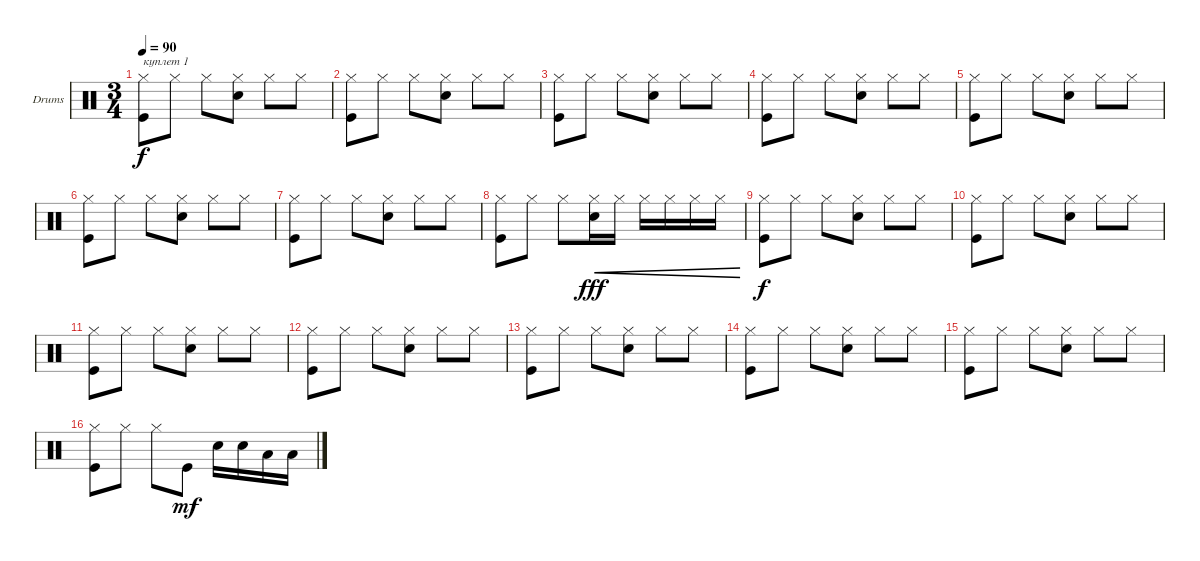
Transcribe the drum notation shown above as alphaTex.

\defaultSystemsLayout 4
\bracketExtendMode groupsimilarinstruments
\firstSystemTrackNameOrientation horizontal
\otherSystemsTrackNameOrientation horizontal
\track ("Саня" "Drums") {instrument percussion}
\staff {score}
\articulation defaults
\ts (3 4)
\tempo 90
\clef neutral
\ks c
("Kick (hit)" "Hi-Hat (closed)").8{txt "куплет 1" dy f} "Hi-Hat (closed)".8 "Hi-Hat (closed)".8 ("Snare (hit) 2" "Hi-Hat (closed)").8 "Hi-Hat (closed)".8 "Hi-Hat (closed)".8 |
("Kick (hit)" "Hi-Hat (closed)").8 "Hi-Hat (closed)".8 "Hi-Hat (closed)".8 ("Snare (hit) 2" "Hi-Hat (closed)").8 "Hi-Hat (closed)".8 "Hi-Hat (closed)".8 |
("Kick (hit)" "Hi-Hat (closed)").8 "Hi-Hat (closed)".8 "Hi-Hat (closed)".8 ("Snare (hit) 2" "Hi-Hat (closed)").8 "Hi-Hat (closed)".8 "Hi-Hat (closed)".8 |
("Kick (hit)" "Hi-Hat (closed)").8 "Hi-Hat (closed)".8 "Hi-Hat (closed)".8 ("Snare (hit) 2" "Hi-Hat (closed)").8 "Hi-Hat (closed)".8 "Hi-Hat (closed)".8 |
("Kick (hit)" "Hi-Hat (closed)").8 "Hi-Hat (closed)".8 "Hi-Hat (closed)".8 ("Snare (hit) 2" "Hi-Hat (closed)").8 "Hi-Hat (closed)".8 "Hi-Hat (closed)".8 |
("Kick (hit)" "Hi-Hat (closed)").8 "Hi-Hat (closed)".8 "Hi-Hat (closed)".8 ("Snare (hit) 2" "Hi-Hat (closed)").8 "Hi-Hat (closed)".8 "Hi-Hat (closed)".8 |
("Kick (hit)" "Hi-Hat (closed)").8 "Hi-Hat (closed)".8 "Hi-Hat (closed)".8 ("Snare (hit) 2" "Hi-Hat (closed)").8 "Hi-Hat (closed)".8 "Hi-Hat (closed)".8 |
("Kick (hit)" "Hi-Hat (closed)").8 "Hi-Hat (closed)".8 "Hi-Hat (closed)".8 ("Hi-Hat (closed)" "Snare (hit) 2").16{cre dy fff} "Hi-Hat (closed)".16{cre} "Hi-Hat (closed)".16{cre} "Hi-Hat (closed)".16{cre} "Hi-Hat (closed)".16{cre} "Hi-Hat (closed)".16{cre} |
("Kick (hit)" "Hi-Hat (closed)").8{dy f} "Hi-Hat (closed)".8 "Hi-Hat (closed)".8 ("Snare (hit) 2" "Hi-Hat (closed)").8 "Hi-Hat (closed)".8 "Hi-Hat (closed)".8 |
("Kick (hit)" "Hi-Hat (closed)").8 "Hi-Hat (closed)".8 "Hi-Hat (closed)".8 ("Snare (hit) 2" "Hi-Hat (closed)").8 "Hi-Hat (closed)".8 "Hi-Hat (closed)".8 |
("Kick (hit)" "Hi-Hat (closed)").8 "Hi-Hat (closed)".8 "Hi-Hat (closed)".8 ("Snare (hit) 2" "Hi-Hat (closed)").8 "Hi-Hat (closed)".8 "Hi-Hat (closed)".8 |
("Kick (hit)" "Hi-Hat (closed)").8 "Hi-Hat (closed)".8 "Hi-Hat (closed)".8 ("Snare (hit) 2" "Hi-Hat (closed)").8 "Hi-Hat (closed)".8 "Hi-Hat (closed)".8 |
("Kick (hit)" "Hi-Hat (closed)").8 "Hi-Hat (closed)".8 "Hi-Hat (closed)".8 ("Snare (hit) 2" "Hi-Hat (closed)").8 "Hi-Hat (closed)".8 "Hi-Hat (closed)".8 |
("Kick (hit)" "Hi-Hat (closed)").8 "Hi-Hat (closed)".8 "Hi-Hat (closed)".8 ("Snare (hit) 2" "Hi-Hat (closed)").8 "Hi-Hat (closed)".8 "Hi-Hat (closed)".8 |
("Kick (hit)" "Hi-Hat (closed)").8 "Hi-Hat (closed)".8 "Hi-Hat (closed)".8 ("Snare (hit) 2" "Hi-Hat (closed)").8 "Hi-Hat (closed)".8 "Hi-Hat (closed)".8 |
("Kick (hit)" "Hi-Hat (closed)").8 "Hi-Hat (closed)".8 "Hi-Hat (closed)".8 "Kick (hit)".8{dy mf} "Snare (hit) 2".16 "Snare (hit) 2".16 "Low Tom (hit)".16 "Low Tom (hit)".16
